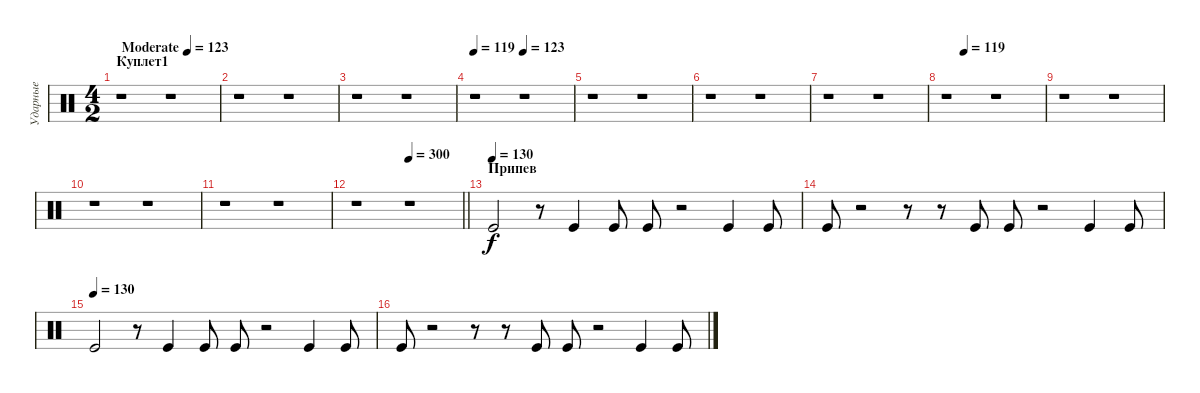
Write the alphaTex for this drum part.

\track ("Ударные" "Ударные") {instrument percussion}
\staff {score}
\articulation defaults
\ts (4 2)
\section ("" "Куплет1")
\tempo (123 "Moderate")
\clef neutral
\ks c
r.1{dy f} r.1 |
r.1 r.1 |
r.1 r.1 |
\tempo 119
\tempo (123 0.5)
r.1 r.1 |
r.1 r.1 |
r.1 r.1 |
r.1 r.1 |
\tempo (119 0.1875)
r.1 r.1 |
r.1 r.1 |
r.1 r.1 |
r.1 r.1 |
\tempo (300 0.5)
\barLineRight lightlight
r.1 r.1 |
\section ("" "Припев")
\tempo (130)
"Kick (hit)".2 r.8 "Kick (hit)".4 "Kick (hit)".8 "Kick (hit)".8 r.2 "Kick (hit)".4 "Kick (hit)".8 |
"Kick (hit)".8 r.2 r.8 r.8 "Kick (hit)".8 "Kick (hit)".8 r.2 "Kick (hit)".4 "Kick (hit)".8 |
\tempo (130)
"Kick (hit)".2 r.8 "Kick (hit)".4 "Kick (hit)".8 "Kick (hit)".8 r.2 "Kick (hit)".4 "Kick (hit)".8 |
"Kick (hit)".8 r.2 r.8 r.8 "Kick (hit)".8 "Kick (hit)".8 r.2 "Kick (hit)".4 "Kick (hit)".8
